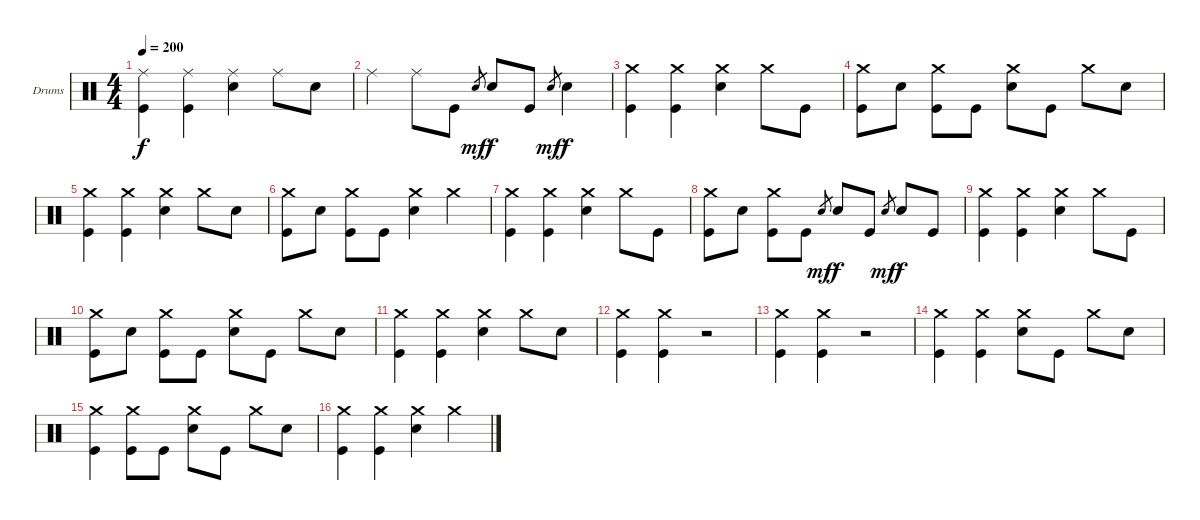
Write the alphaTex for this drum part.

\bracketExtendMode groupsimilarinstruments
\firstSystemTrackNameOrientation horizontal
\otherSystemsTrackNameOrientation horizontal
\track ("Drumkit" "Drums") {instrument percussion}
\staff {score}
\articulation defaults
\ts (4 4)
\tempo 200
\clef neutral
\ks c
("Ride (middle)" "Kick (hit)").4{dy f} ("Ride (middle)" "Kick (hit)").4 ("Ride (middle)" "Snare (hit) 2").4 "Ride (middle)".8 "Snare (hit) 2".8 |
"Ride (middle)".4 "Ride (middle)".8 "Kick (hit)".8 "Snare (hit) 2".8{gr dy mf} "Snare (hit) 2".8{dy f} "Kick (hit)".8 "Snare (hit) 2".8{gr dy mf} "Snare (hit) 2".4{dy f} |
("Kick (hit)" "Crash medium (hit)").4 ("Kick (hit)" "Crash medium (hit)").4 ("Snare (hit) 2" "Crash medium (hit)").4 "Crash medium (hit)".8 "Kick (hit)".8 |
("Kick (hit)" "Crash medium (hit)").8 "Snare (hit) 2".8 ("Kick (hit)" "Crash medium (hit)").8 "Kick (hit)".8 ("Snare (hit) 2" "Crash medium (hit)").8 "Kick (hit)".8 "Crash medium (hit)".8 "Snare (hit) 2".8 |
("Kick (hit)" "Crash medium (hit)").4 ("Kick (hit)" "Crash medium (hit)").4 ("Snare (hit) 2" "Crash medium (hit)").4 "Crash medium (hit)".8 "Snare (hit) 2".8 |
("Kick (hit)" "Crash medium (hit)").8 "Snare (hit) 2".8 ("Kick (hit)" "Crash medium (hit)").8 "Kick (hit)".8 ("Snare (hit) 2" "Crash medium (hit)").4 "Crash medium (hit)".4 |
("Kick (hit)" "Crash medium (hit)").4 ("Kick (hit)" "Crash medium (hit)").4 ("Snare (hit) 2" "Crash medium (hit)").4 "Crash medium (hit)".8 "Kick (hit)".8 |
("Kick (hit)" "Crash medium (hit)").8 "Snare (hit) 2".8 ("Kick (hit)" "Crash medium (hit)").8 "Kick (hit)".8 "Snare (hit) 2".8{gr dy mf} "Snare (hit) 2".8{dy f} "Kick (hit)".8 "Snare (hit) 2".8{gr dy mf} "Snare (hit) 2".8{dy f} "Kick (hit)".8 |
("Kick (hit)" "Crash medium (hit)").4 ("Kick (hit)" "Crash medium (hit)").4 ("Snare (hit) 2" "Crash medium (hit)").4 "Crash medium (hit)".8 "Kick (hit)".8 |
("Kick (hit)" "Crash medium (hit)").8 "Snare (hit) 2".8 ("Kick (hit)" "Crash medium (hit)").8 "Kick (hit)".8 ("Snare (hit) 2" "Crash medium (hit)").8 "Kick (hit)".8 "Crash medium (hit)".8 "Snare (hit) 2".8 |
("Kick (hit)" "Crash medium (hit)").4 ("Kick (hit)" "Crash medium (hit)").4 ("Snare (hit) 2" "Crash medium (hit)").4 "Crash medium (hit)".8 "Snare (hit) 2".8 |
("Crash medium (hit)" "Kick (hit)").4 ("Crash medium (hit)" "Kick (hit)").4 r.2 |
("Crash medium (hit)" "Kick (hit)").4 ("Crash medium (hit)" "Kick (hit)").4 r.2 |
("Crash medium (hit)" "Kick (hit)").4 ("Crash medium (hit)" "Kick (hit)").4 ("Snare (hit) 2" "Crash medium (hit)").8 "Kick (hit)".8 "Crash medium (hit)".8 "Snare (hit) 2".8 |
("Kick (hit)" "Crash medium (hit)").4 ("Kick (hit)" "Crash medium (hit)").8 "Kick (hit)".8 ("Snare (hit) 2" "Crash medium (hit)").8 "Kick (hit)".8 "Crash medium (hit)".8 "Snare (hit) 2".8 |
("Kick (hit)" "Crash medium (hit)").4 ("Kick (hit)" "Crash medium (hit)").4 ("Snare (hit) 2" "Crash medium (hit)").4 "Crash medium (hit)".4
